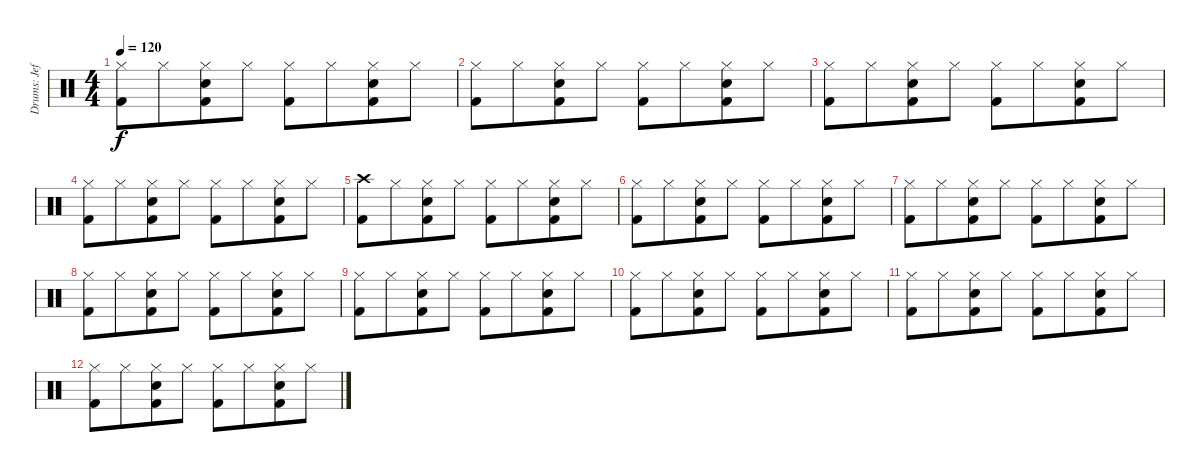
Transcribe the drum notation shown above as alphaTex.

\track ("Drums: Jeff" "Drums: Jef") {instrument percussion}
\staff {score}
\articulation defaults
\ts (4 4)
\tempo 120
\clef neutral
\ks c
("Hi-Hat (closed)" "Kick (hit) 2").8{dy f} "Hi-Hat (closed)".8{beam merge} ("Hi-Hat (closed)" "Electric Snare (hit)" "Kick (hit) 2").8 "Hi-Hat (closed)".8 ("Hi-Hat (closed)" "Kick (hit) 2").8 "Hi-Hat (closed)".8{beam merge} ("Hi-Hat (closed)" "Electric Snare (hit)" "Kick (hit) 2").8 "Hi-Hat (closed)".8 |
("Hi-Hat (closed)" "Kick (hit) 2").8 "Hi-Hat (closed)".8{beam merge} ("Hi-Hat (closed)" "Electric Snare (hit)" "Kick (hit) 2").8 "Hi-Hat (closed)".8 ("Hi-Hat (closed)" "Kick (hit) 2").8 "Hi-Hat (closed)".8{beam merge} ("Hi-Hat (closed)" "Electric Snare (hit)" "Kick (hit) 2").8 "Hi-Hat (closed)".8 |
("Hi-Hat (closed)" "Kick (hit) 2").8 "Hi-Hat (closed)".8{beam merge} ("Hi-Hat (closed)" "Electric Snare (hit)" "Kick (hit) 2").8 "Hi-Hat (closed)".8 ("Hi-Hat (closed)" "Kick (hit) 2").8 "Hi-Hat (closed)".8{beam merge} ("Hi-Hat (closed)" "Electric Snare (hit)" "Kick (hit) 2").8 "Hi-Hat (closed)".8 |
("Hi-Hat (closed)" "Kick (hit) 2").8 "Hi-Hat (closed)".8{beam merge} ("Hi-Hat (closed)" "Electric Snare (hit)" "Kick (hit) 2").8 "Hi-Hat (closed)".8 ("Hi-Hat (closed)" "Kick (hit) 2").8 "Hi-Hat (closed)".8{beam merge} ("Hi-Hat (closed)" "Electric Snare (hit)" "Kick (hit) 2").8 "Hi-Hat (closed)".8 |
("Crash high (hit)" "Kick (hit) 2").8 "Hi-Hat (closed)".8{beam merge} ("Hi-Hat (closed)" "Electric Snare (hit)" "Kick (hit) 2").8 "Hi-Hat (closed)".8 ("Hi-Hat (closed)" "Kick (hit) 2").8 "Hi-Hat (closed)".8{beam merge} ("Hi-Hat (closed)" "Electric Snare (hit)" "Kick (hit) 2").8 "Hi-Hat (closed)".8 |
("Hi-Hat (closed)" "Kick (hit) 2").8 "Hi-Hat (closed)".8{beam merge} ("Hi-Hat (closed)" "Electric Snare (hit)" "Kick (hit) 2").8 "Hi-Hat (closed)".8 ("Hi-Hat (closed)" "Kick (hit) 2").8 "Hi-Hat (closed)".8{beam merge} ("Hi-Hat (closed)" "Electric Snare (hit)" "Kick (hit) 2").8 "Hi-Hat (closed)".8 |
("Hi-Hat (closed)" "Kick (hit) 2").8 "Hi-Hat (closed)".8{beam merge} ("Hi-Hat (closed)" "Electric Snare (hit)" "Kick (hit) 2").8 "Hi-Hat (closed)".8 ("Hi-Hat (closed)" "Kick (hit) 2").8 "Hi-Hat (closed)".8{beam merge} ("Hi-Hat (closed)" "Electric Snare (hit)" "Kick (hit) 2").8 "Hi-Hat (closed)".8 |
("Hi-Hat (closed)" "Kick (hit) 2").8 "Hi-Hat (closed)".8{beam merge} ("Hi-Hat (closed)" "Electric Snare (hit)" "Kick (hit) 2").8 "Hi-Hat (closed)".8 ("Hi-Hat (closed)" "Kick (hit) 2").8 "Hi-Hat (closed)".8{beam merge} ("Hi-Hat (closed)" "Electric Snare (hit)" "Kick (hit) 2").8 "Hi-Hat (closed)".8 |
("Hi-Hat (closed)" "Kick (hit) 2").8 "Hi-Hat (closed)".8{beam merge} ("Hi-Hat (closed)" "Electric Snare (hit)" "Kick (hit) 2").8 "Hi-Hat (closed)".8 ("Hi-Hat (closed)" "Kick (hit) 2").8 "Hi-Hat (closed)".8{beam merge} ("Hi-Hat (closed)" "Electric Snare (hit)" "Kick (hit) 2").8 "Hi-Hat (closed)".8 |
("Hi-Hat (closed)" "Kick (hit) 2").8 "Hi-Hat (closed)".8{beam merge} ("Hi-Hat (closed)" "Electric Snare (hit)" "Kick (hit) 2").8 "Hi-Hat (closed)".8 ("Hi-Hat (closed)" "Kick (hit) 2").8 "Hi-Hat (closed)".8{beam merge} ("Hi-Hat (closed)" "Electric Snare (hit)" "Kick (hit) 2").8 "Hi-Hat (closed)".8 |
("Hi-Hat (closed)" "Kick (hit) 2").8 "Hi-Hat (closed)".8{beam merge} ("Hi-Hat (closed)" "Electric Snare (hit)" "Kick (hit) 2").8 "Hi-Hat (closed)".8 ("Hi-Hat (closed)" "Kick (hit) 2").8 "Hi-Hat (closed)".8{beam merge} ("Hi-Hat (closed)" "Electric Snare (hit)" "Kick (hit) 2").8 "Hi-Hat (closed)".8 |
("Hi-Hat (closed)" "Kick (hit) 2").8 "Hi-Hat (closed)".8{beam merge} ("Hi-Hat (closed)" "Electric Snare (hit)" "Kick (hit) 2").8 "Hi-Hat (closed)".8 ("Hi-Hat (closed)" "Kick (hit) 2").8 "Hi-Hat (closed)".8{beam merge} ("Hi-Hat (closed)" "Electric Snare (hit)" "Kick (hit) 2").8 "Hi-Hat (closed)".8
